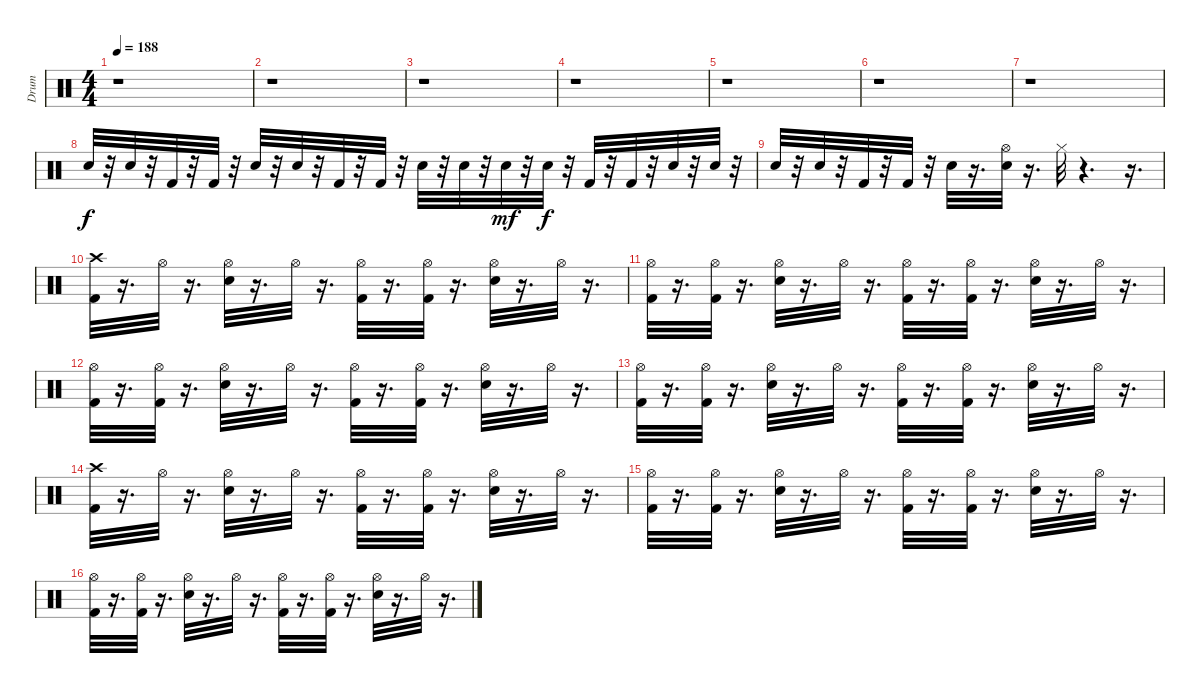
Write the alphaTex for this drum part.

\track ("Drum" "Drum") {instrument percussion}
\staff {score}
\articulation defaults
\ts (4 4)
\tempo 188
\clef neutral
\ks c
r.1{dy f} |
r.1 |
r.1 |
r.1 |
r.1 |
r.1 |
r.1 |
"Snare (hit) 2".32 r.32 "Snare (hit) 2".32 r.32 "Kick (hit) 2".32 r.32 "Kick (hit) 2".32 r.32 "Snare (hit) 2".32 r.32 "Snare (hit) 2".32 r.32 "Kick (hit) 2".32 r.32 "Kick (hit) 2".32 r.32 "Snare (hit) 2".32 r.32 "Snare (hit) 2".32 r.32 "Snare (hit) 2".32{dy mf} r.32 "Snare (hit) 2".32{dy f} r.32 "Kick (hit) 2".32 r.32 "Kick (hit) 2".32 r.32 "Snare (hit) 2".32 r.32 "Snare (hit) 2".32 r.32 |
"Snare (hit) 2".32 r.32 "Snare (hit) 2".32 r.32 "Kick (hit) 2".32 r.32 "Kick (hit) 2".32 r.32 "Snare (hit) 2".32 r.16{d} ("Snare (hit) 2" "Hi-Hat (open)").32 r.16{d} "Hi-Hat (closed)".32 r.4{d} r.16{d} |
("Crash high (hit)" "Kick (hit) 2").32 r.16{d} "Hi-Hat (open)".32 r.16{d} ("Snare (hit) 2" "Hi-Hat (open)").32 r.16{d} "Hi-Hat (open)".32 r.16{d} ("Kick (hit) 2" "Hi-Hat (open)").32 r.16{d} ("Kick (hit) 2" "Hi-Hat (open)").32 r.16{d} ("Snare (hit) 2" "Hi-Hat (open)").32 r.16{d} "Hi-Hat (open)".32 r.16{d} |
("Hi-Hat (open)" "Kick (hit) 2").32 r.16{d} ("Hi-Hat (open)" "Kick (hit) 2").32 r.16{d} ("Hi-Hat (open)" "Snare (hit) 2").32 r.16{d} "Hi-Hat (open)".32 r.16{d} ("Hi-Hat (open)" "Kick (hit) 2").32 r.16{d} ("Hi-Hat (open)" "Kick (hit) 2").32 r.16{d} ("Hi-Hat (open)" "Snare (hit) 2").32 r.16{d} "Hi-Hat (open)".32 r.16{d} |
("Hi-Hat (open)" "Kick (hit) 2").32 r.16{d} ("Hi-Hat (open)" "Kick (hit) 2").32 r.16{d} ("Hi-Hat (open)" "Snare (hit) 2").32 r.16{d} "Hi-Hat (open)".32 r.16{d} ("Hi-Hat (open)" "Kick (hit) 2").32 r.16{d} ("Hi-Hat (open)" "Kick (hit) 2").32 r.16{d} ("Hi-Hat (open)" "Snare (hit) 2").32 r.16{d} "Hi-Hat (open)".32 r.16{d} |
("Hi-Hat (open)" "Kick (hit) 2").32 r.16{d} ("Hi-Hat (open)" "Kick (hit) 2").32 r.16{d} ("Hi-Hat (open)" "Snare (hit) 2").32 r.16{d} "Hi-Hat (open)".32 r.16{d} ("Hi-Hat (open)" "Kick (hit) 2").32 r.16{d} ("Hi-Hat (open)" "Kick (hit) 2").32 r.16{d} ("Hi-Hat (open)" "Snare (hit) 2").32 r.16{d} "Hi-Hat (open)".32 r.16{d} |
("Crash high (hit)" "Kick (hit) 2").32 r.16{d} "Hi-Hat (open)".32 r.16{d} ("Snare (hit) 2" "Hi-Hat (open)").32 r.16{d} "Hi-Hat (open)".32 r.16{d} ("Kick (hit) 2" "Hi-Hat (open)").32 r.16{d} ("Kick (hit) 2" "Hi-Hat (open)").32 r.16{d} ("Snare (hit) 2" "Hi-Hat (open)").32 r.16{d} "Hi-Hat (open)".32 r.16{d} |
("Hi-Hat (open)" "Kick (hit) 2").32 r.16{d} ("Hi-Hat (open)" "Kick (hit) 2").32 r.16{d} ("Hi-Hat (open)" "Snare (hit) 2").32 r.16{d} "Hi-Hat (open)".32 r.16{d} ("Hi-Hat (open)" "Kick (hit) 2").32 r.16{d} ("Hi-Hat (open)" "Kick (hit) 2").32 r.16{d} ("Hi-Hat (open)" "Snare (hit) 2").32 r.16{d} "Hi-Hat (open)".32 r.16{d} |
("Hi-Hat (open)" "Kick (hit) 2").32 r.16{d} ("Hi-Hat (open)" "Kick (hit) 2").32 r.16{d} ("Hi-Hat (open)" "Snare (hit) 2").32 r.16{d} "Hi-Hat (open)".32 r.16{d} ("Hi-Hat (open)" "Kick (hit) 2").32 r.16{d} ("Hi-Hat (open)" "Kick (hit) 2").32 r.16{d} ("Hi-Hat (open)" "Snare (hit) 2").32 r.16{d} "Hi-Hat (open)".32 r.16{d}
